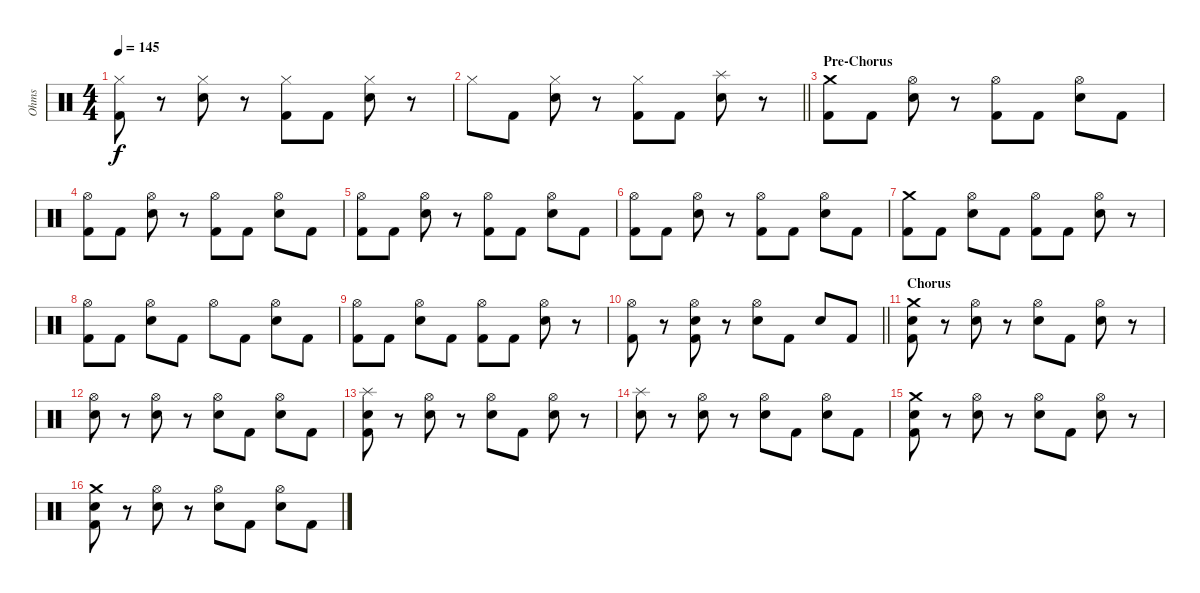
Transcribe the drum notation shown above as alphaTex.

\track ("Ohms" "Ohms") {instrument percussion}
\staff {score}
\articulation defaults
\ts (4 4)
\tempo 145
\clef neutral
\ks c
("Hi-Hat (closed)" "Kick (hit) 2").8{dy f} r.8 ("Hi-Hat (closed)" "Snare (hit) 2").8 r.8 ("Hi-Hat (closed)" "Kick (hit) 2").8 "Kick (hit) 2".8 ("Hi-Hat (closed)" "Snare (hit) 2").8 r.8 |
\barLineRight lightlight "Hi-Hat (closed)".8 "Kick (hit) 2".8
("Hi-Hat (closed)" "Snare (hit) 2").8 r.8 ("Hi-Hat (closed)" "Kick (hit) 2").8 "Kick (hit) 2".8 ("Splash (hit)" "Snare (hit) 2").8 r.8 |
\section ("" "Pre-Chorus")
("Crash medium (hit)" "Kick (hit) 2").8 "Kick (hit) 2".8 ("Hi-Hat (open)" "Snare (hit) 2").8 r.8 ("Hi-Hat (open)" "Kick (hit) 2").8 "Kick (hit) 2".8 ("Hi-Hat (open)" "Snare (hit) 2").8 "Kick (hit) 2".8 |
("Hi-Hat (open)" "Kick (hit) 2").8 "Kick (hit) 2".8 ("Hi-Hat (open)" "Snare (hit) 2").8 r.8 ("Hi-Hat (open)" "Kick (hit) 2").8 "Kick (hit) 2".8 ("Hi-Hat (open)" "Snare (hit) 2").8 "Kick (hit) 2".8 |
("Hi-Hat (open)" "Kick (hit) 2").8 "Kick (hit) 2".8 ("Hi-Hat (open)" "Snare (hit) 2").8 r.8 ("Hi-Hat (open)" "Kick (hit) 2").8 "Kick (hit) 2".8 ("Hi-Hat (open)" "Snare (hit) 2").8 "Kick (hit) 2".8 |
("Hi-Hat (open)" "Kick (hit) 2").8 "Kick (hit) 2".8 ("Hi-Hat (open)" "Snare (hit) 2").8 r.8 ("Hi-Hat (open)" "Kick (hit) 2").8 "Kick (hit) 2".8 ("Hi-Hat (open)" "Snare (hit) 2").8 "Kick (hit) 2".8 |
("Crash medium (hit)" "Kick (hit) 2").8 "Kick (hit) 2".8 ("Hi-Hat (open)" "Snare (hit) 2").8 "Kick (hit) 2".8 ("Hi-Hat (open)" "Kick (hit) 2").8 "Kick (hit) 2".8 ("Hi-Hat (open)" "Snare (hit) 2").8 r.8 |
("Hi-Hat (open)" "Kick (hit) 2").8 "Kick (hit) 2".8 ("Hi-Hat (open)" "Snare (hit) 2").8 "Kick (hit) 2".8 "Hi-Hat (open)".8 "Kick (hit) 2".8 ("Hi-Hat (open)" "Snare (hit) 2").8 "Kick (hit) 2".8 |
("Hi-Hat (open)" "Kick (hit) 2").8 "Kick (hit) 2".8 ("Hi-Hat (open)" "Snare (hit) 2").8 "Kick (hit) 2".8 ("Hi-Hat (open)" "Kick (hit) 2").8 "Kick (hit) 2".8 ("Hi-Hat (open)" "Snare (hit) 2").8 r.8 |
\barLineRight lightlight
("Hi-Hat (open)" "Kick (hit) 2").8 r.8 ("Hi-Hat (open)" "Snare (hit) 2" "Kick (hit) 2").8 r.8 ("Hi-Hat (open)" "Snare (hit) 2").8 "Kick (hit) 2".8 "Snare (hit) 2".8 "Kick (hit) 2".8 |
\section ("" "Chorus")
("Crash medium (hit)" "Snare (hit) 2" "Kick (hit) 2").8 r.8 ("Hi-Hat (open)" "Snare (hit) 2").8 r.8 ("Hi-Hat (open)" "Snare (hit) 2").8 "Kick (hit) 2".8 ("Hi-Hat (open)" "Snare (hit) 2").8 r.8 |
("Hi-Hat (open)" "Snare (hit) 2").8 r.8 ("Hi-Hat (open)" "Snare (hit) 2").8 r.8 ("Hi-Hat (open)" "Snare (hit) 2").8 "Kick (hit) 2".8 ("Hi-Hat (open)" "Snare (hit) 2").8 "Kick (hit) 2".8 |
("Splash (hit)" "Snare (hit) 2" "Kick (hit) 2").8 r.8 ("Hi-Hat (open)" "Snare (hit) 2").8 r.8 ("Hi-Hat (open)" "Snare (hit) 2").8 "Kick (hit) 2".8 ("Hi-Hat (open)" "Snare (hit) 2").8 r.8 |
("Splash (hit)" "Snare (hit) 2").8 r.8 ("Hi-Hat (open)" "Snare (hit) 2").8 r.8 ("Hi-Hat (open)" "Snare (hit) 2").8 "Kick (hit) 2".8 ("Hi-Hat (open)" "Snare (hit) 2").8 "Kick (hit) 2".8 |
("Crash medium (hit)" "Snare (hit) 2" "Kick (hit) 2").8 r.8 ("Hi-Hat (open)" "Snare (hit) 2").8 r.8 ("Hi-Hat (open)" "Snare (hit) 2").8 "Kick (hit) 2".8 ("Hi-Hat (open)" "Snare (hit) 2").8 r.8 |
("Crash medium (hit)" "Snare (hit) 2" "Kick (hit) 2").8 r.8 ("Hi-Hat (open)" "Snare (hit) 2").8 r.8 ("Hi-Hat (open)" "Snare (hit) 2").8 "Kick (hit) 2".8 ("Hi-Hat (open)" "Snare (hit) 2").8 "Kick (hit) 2".8
